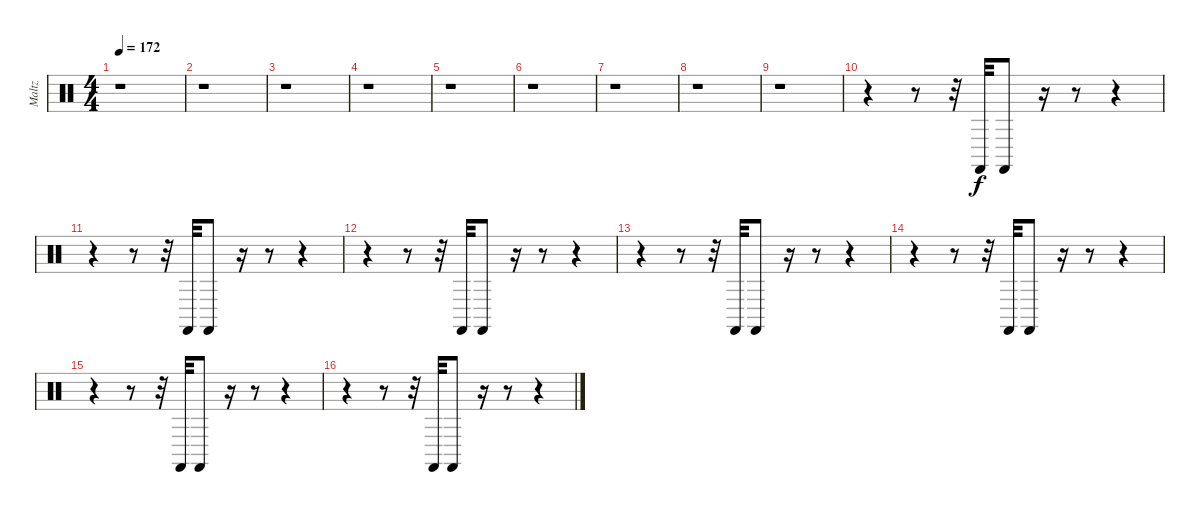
\track ("Maltz" "Maltz") {instrument percussion}
\staff {score}
\articulation defaults
\ts (4 4)
\tempo 172
\clef neutral
\ks c
r.1{dy f} |
r.1 |
r.1 |
r.1 |
r.1 |
r.1 |
r.1 |
r.1 |
r.1 |
r.4{volume 15} r.8 r.32 "Castanets (hit)".32 "Castanets (hit)".8 r.16 r.8 r.4 |
r.4 r.8 r.32 "Castanets (hit)".32 "Castanets (hit)".8 r.16 r.8 r.4 |
r.4 r.8 r.32 "Castanets (hit)".32 "Castanets (hit)".8 r.16 r.8 r.4 |
r.4 r.8 r.32 "Castanets (hit)".32 "Castanets (hit)".8 r.16 r.8 r.4 |
r.4 r.8 r.32 "Castanets (hit)".32 "Castanets (hit)".8 r.16 r.8 r.4 |
r.4 r.8 r.32 "Castanets (hit)".32 "Castanets (hit)".8 r.16 r.8 r.4 |
r.4 r.8 r.32 "Castanets (hit)".32 "Castanets (hit)".8 r.16 r.8 r.4
